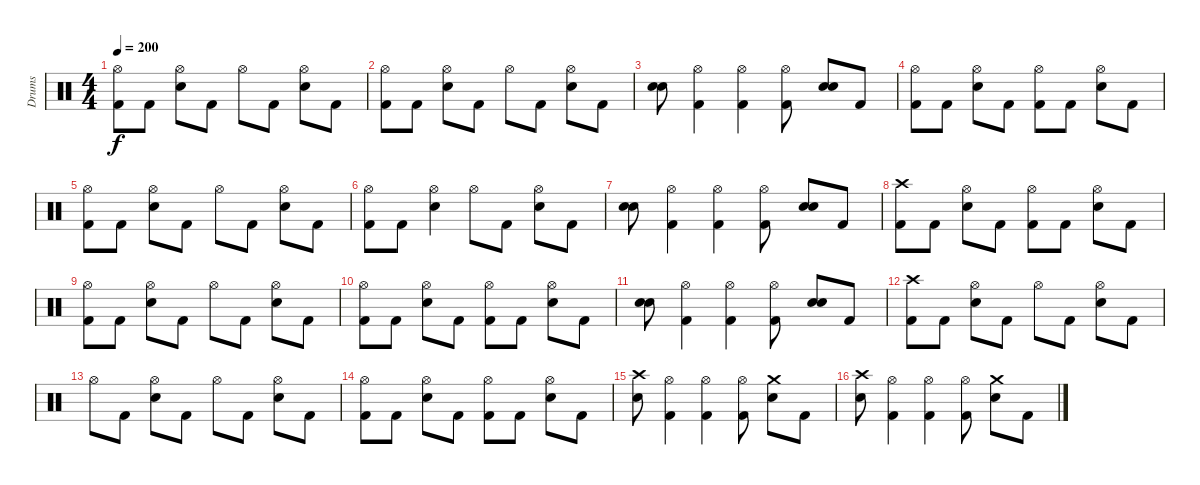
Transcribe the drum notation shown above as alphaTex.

\track ("Drums" "Drums") {instrument percussion}
\staff {score}
\articulation defaults
\ts (4 4)
\tempo 200
\clef neutral
\ks c
("Kick (hit) 2" "Hi-Hat (open)").8{dy f} "Kick (hit) 2".8 ("Electric Snare (hit)" "Hi-Hat (open)").8 "Kick (hit) 2".8 "Hi-Hat (open)".8 "Kick (hit) 2".8 ("Electric Snare (hit)" "Hi-Hat (open)").8 "Kick (hit) 2".8 |
("Kick (hit) 2" "Hi-Hat (open)").8 "Kick (hit) 2".8 ("Electric Snare (hit)" "Hi-Hat (open)").8 "Kick (hit) 2".8 "Hi-Hat (open)".8 "Kick (hit) 2".8 ("Electric Snare (hit)" "Hi-Hat (open)").8 "Kick (hit) 2".8 |
("Electric Snare (hit)" "Electric Snare (hit)").8 ("Kick (hit) 2" "Hi-Hat (open)").4 ("Kick (hit) 2" "Hi-Hat (open)").4 ("Kick (hit) 2" "Hi-Hat (open)").8 ("Electric Snare (hit)" "Electric Snare (hit)").8 "Kick (hit) 2".8 |
("Kick (hit) 2" "Hi-Hat (open)").8 "Kick (hit) 2".8 ("Electric Snare (hit)" "Hi-Hat (open)").8 "Kick (hit) 2".8 ("Kick (hit) 2" "Hi-Hat (open)").8 "Kick (hit) 2".8 ("Electric Snare (hit)" "Hi-Hat (open)").8 "Kick (hit) 2".8 |
("Kick (hit) 2" "Hi-Hat (open)").8 "Kick (hit) 2".8 ("Electric Snare (hit)" "Hi-Hat (open)").8 "Kick (hit) 2".8 "Hi-Hat (open)".8 "Kick (hit) 2".8 ("Electric Snare (hit)" "Hi-Hat (open)").8 "Kick (hit) 2".8 |
("Kick (hit) 2" "Hi-Hat (open)").8 "Kick (hit) 2".8 ("Electric Snare (hit)" "Hi-Hat (open)").4 "Hi-Hat (open)".8 "Kick (hit) 2".8 ("Electric Snare (hit)" "Hi-Hat (open)").8 "Kick (hit) 2".8 |
("Electric Snare (hit)" "Electric Snare (hit)").8 ("Kick (hit) 2" "Hi-Hat (open)").4 ("Kick (hit) 2" "Hi-Hat (open)").4 ("Kick (hit) 2" "Hi-Hat (open)").8 ("Electric Snare (hit)" "Electric Snare (hit)").8 "Kick (hit) 2".8 |
("Kick (hit) 2" "Crash high (hit)").8 "Kick (hit) 2".8 ("Electric Snare (hit)" "Hi-Hat (open)").8 "Kick (hit) 2".8 ("Kick (hit) 2" "Hi-Hat (open)").8 "Kick (hit) 2".8 ("Electric Snare (hit)" "Hi-Hat (open)").8 "Kick (hit) 2".8 |
("Kick (hit) 2" "Hi-Hat (open)").8 "Kick (hit) 2".8 ("Electric Snare (hit)" "Hi-Hat (open)").8 "Kick (hit) 2".8 "Hi-Hat (open)".8 "Kick (hit) 2".8 ("Electric Snare (hit)" "Hi-Hat (open)").8 "Kick (hit) 2".8 |
("Kick (hit) 2" "Hi-Hat (open)").8 "Kick (hit) 2".8 ("Electric Snare (hit)" "Hi-Hat (open)").8 "Kick (hit) 2".8 ("Kick (hit) 2" "Hi-Hat (open)").8 "Kick (hit) 2".8 ("Electric Snare (hit)" "Hi-Hat (open)").8 "Kick (hit) 2".8 |
("Electric Snare (hit)" "Electric Snare (hit)").8 ("Kick (hit) 2" "Hi-Hat (open)").4 ("Kick (hit) 2" "Hi-Hat (open)").4 ("Kick (hit) 2" "Hi-Hat (open)").8 ("Electric Snare (hit)" "Electric Snare (hit)").8 "Kick (hit) 2".8 |
("Kick (hit) 2" "Crash high (hit)").8 "Kick (hit) 2".8 ("Electric Snare (hit)" "Hi-Hat (open)").8 "Kick (hit) 2".8 "Hi-Hat (open)".8 "Kick (hit) 2".8 ("Electric Snare (hit)" "Hi-Hat (open)").8 "Kick (hit) 2".8 |
"Hi-Hat (open)".8 "Kick (hit) 2".8 ("Electric Snare (hit)" "Hi-Hat (open)").8 "Kick (hit) 2".8 "Hi-Hat (open)".8 "Kick (hit) 2".8 ("Electric Snare (hit)" "Hi-Hat (open)").8 "Kick (hit) 2".8 |
("Kick (hit) 2" "Hi-Hat (open)").8 "Kick (hit) 2".8 ("Electric Snare (hit)" "Hi-Hat (open)").8 "Kick (hit) 2".8 ("Kick (hit) 2" "Hi-Hat (open)").8 "Kick (hit) 2".8 ("Electric Snare (hit)" "Hi-Hat (open)").8 "Kick (hit) 2".8 |
("Electric Snare (hit)" "Crash high (hit)").8 ("Kick (hit) 2" "Hi-Hat (open)").4 ("Kick (hit) 2" "Hi-Hat (open)").4 ("Kick (hit) 2" "Hi-Hat (open)").8 ("Electric Snare (hit)" "Crash medium (hit)").8 "Kick (hit) 2".8 |
("Electric Snare (hit)" "Crash high (hit)").8 ("Kick (hit) 2" "Hi-Hat (open)").4 ("Kick (hit) 2" "Hi-Hat (open)").4 ("Kick (hit) 2" "Hi-Hat (open)").8 ("Electric Snare (hit)" "Crash medium (hit)").8 "Kick (hit) 2".8
